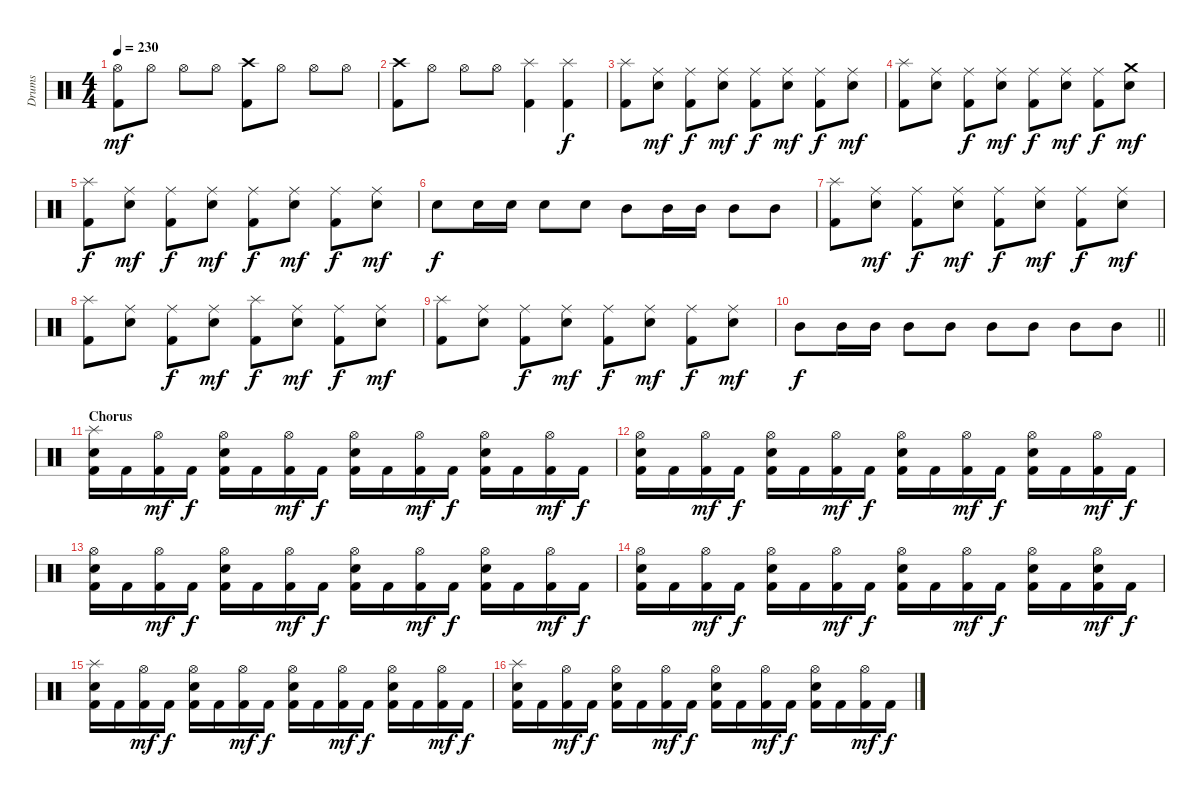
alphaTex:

\track ("Drums" "Drums") {instrument percussion}
\staff {score}
\articulation defaults
\ts (4 4)
\tempo 230
\clef neutral
\ks c
("Hi-Hat (open)" "Kick (hit) 2").8{dy mf} "Hi-Hat (open)".8 "Hi-Hat (open)".8 "Hi-Hat (open)".8 ("Crash high (hit)" "Kick (hit) 2").8 "Hi-Hat (open)".8 "Hi-Hat (open)".8 "Hi-Hat (open)".8 |
("Crash high (hit)" "Kick (hit) 2").8 "Hi-Hat (open)".8 "Hi-Hat (open)".8 "Hi-Hat (open)".8 ("Splash (hit)" "Kick (hit) 2").4 ("Splash (hit)" "Kick (hit) 2").4{dy f} |
("Splash (hit)" "Kick (hit) 2").8 ("Ride (middle)" "Snare (hit) 2").8{dy mf} ("Ride (middle)" "Kick (hit) 2").8{dy f} ("Ride (middle)" "Snare (hit) 2").8{dy mf} ("Ride (middle)" "Kick (hit) 2").8{dy f} ("Ride (middle)" "Snare (hit) 2").8{dy mf} ("Ride (middle)" "Kick (hit) 2").8{dy f} ("Ride (middle)" "Snare (hit) 2").8{dy mf} |
("Splash (hit)" "Kick (hit) 2").8 ("Ride (middle)" "Snare (hit) 2").8 ("Ride (middle)" "Kick (hit) 2").8{dy f} ("Ride (middle)" "Snare (hit) 2").8{dy mf} ("Ride (middle)" "Kick (hit) 2").8{dy f} ("Ride (middle)" "Snare (hit) 2").8{dy mf} ("Ride (middle)" "Kick (hit) 2").8{dy f} ("Crash medium (hit)" "Snare (hit) 2").8{dy mf} |
("Splash (hit)" "Kick (hit) 2").8{dy f} ("Ride (middle)" "Snare (hit) 2").8{dy mf} ("Ride (middle)" "Kick (hit) 2").8{dy f} ("Ride (middle)" "Snare (hit) 2").8{dy mf} ("Ride (middle)" "Kick (hit) 2").8{dy f} ("Ride (middle)" "Snare (hit) 2").8{dy mf} ("Ride (middle)" "Kick (hit) 2").8{dy f} ("Ride (middle)" "Snare (hit) 2").8{dy mf} |
"Snare (hit) 2".8{dy f} "Snare (hit) 2".16 "Snare (hit) 2".16 "Snare (hit) 2".8 "Snare (hit) 2".8 "Mid Tom (hit)".8 "Mid Tom (hit)".16 "Mid Tom (hit)".16 "Mid Tom (hit)".8 "Mid Tom (hit)".8 |
("Splash (hit)" "Kick (hit) 2").8 ("Ride (middle)" "Snare (hit) 2").8{dy mf} ("Ride (middle)" "Kick (hit) 2").8{dy f} ("Ride (middle)" "Snare (hit) 2").8{dy mf} ("Ride (middle)" "Kick (hit) 2").8{dy f} ("Ride (middle)" "Snare (hit) 2").8{dy mf} ("Ride (middle)" "Kick (hit) 2").8{dy f} ("Ride (middle)" "Snare (hit) 2").8{dy mf} |
("Splash (hit)" "Kick (hit) 2").8 ("Ride (middle)" "Snare (hit) 2").8 ("Ride (middle)" "Kick (hit) 2").8{dy f} ("Ride (middle)" "Snare (hit) 2").8{dy mf} ("Splash (hit)" "Kick (hit) 2").8{dy f} ("Ride (middle)" "Snare (hit) 2").8{dy mf} ("Ride (middle)" "Kick (hit) 2").8{dy f} ("Ride (middle)" "Snare (hit) 2").8{dy mf} |
("Splash (hit)" "Kick (hit) 2").8 ("Ride (middle)" "Snare (hit) 2").8 ("Ride (middle)" "Kick (hit) 2").8{dy f} ("Ride (middle)" "Snare (hit) 2").8{dy mf} ("Ride (middle)" "Kick (hit) 2").8{dy f} ("Ride (middle)" "Snare (hit) 2").8{dy mf} ("Ride (middle)" "Kick (hit) 2").8{dy f} ("Ride (middle)" "Snare (hit) 2").8{dy mf} |
\barLineRight lightlight "Mid Tom (hit)".8{dy f} "Mid Tom (hit)".16 "Mid Tom (hit)".16 "Mid Tom (hit)".8 "Mid Tom (hit)".8 "Mid Tom (hit)".8 "Mid Tom (hit)".8 "Mid Tom (hit)".8 "Mid Tom (hit)".8
|
\section ("" "Chorus")
("Splash (hit)" "Snare (hit) 2" "Kick (hit) 2").16 "Kick (hit) 2".16 ("Hi-Hat (open)" "Kick (hit) 2").16{dy mf} "Kick (hit) 2".16{dy f} ("Hi-Hat (open)" "Snare (hit) 2" "Kick (hit) 2").16 "Kick (hit) 2".16 ("Hi-Hat (open)" "Kick (hit) 2").16{dy mf} "Kick (hit) 2".16{dy f} ("Hi-Hat (open)" "Snare (hit) 2" "Kick (hit) 2").16 "Kick (hit) 2".16 ("Hi-Hat (open)" "Kick (hit) 2").16{dy mf} "Kick (hit) 2".16{dy f} ("Hi-Hat (open)" "Snare (hit) 2" "Kick (hit) 2").16 "Kick (hit) 2".16 ("Hi-Hat (open)" "Kick (hit) 2").16{dy mf} "Kick (hit) 2".16{dy f} |
("Hi-Hat (open)" "Snare (hit) 2" "Kick (hit) 2").16 "Kick (hit) 2".16 ("Hi-Hat (open)" "Kick (hit) 2").16{dy mf} "Kick (hit) 2".16{dy f} ("Hi-Hat (open)" "Snare (hit) 2" "Kick (hit) 2").16 "Kick (hit) 2".16 ("Hi-Hat (open)" "Kick (hit) 2").16{dy mf} "Kick (hit) 2".16{dy f} ("Hi-Hat (open)" "Snare (hit) 2" "Kick (hit) 2").16 "Kick (hit) 2".16 ("Hi-Hat (open)" "Kick (hit) 2").16{dy mf} "Kick (hit) 2".16{dy f} ("Hi-Hat (open)" "Snare (hit) 2" "Kick (hit) 2").16 "Kick (hit) 2".16 ("Hi-Hat (open)" "Kick (hit) 2").16{dy mf} "Kick (hit) 2".16{dy f} |
("Hi-Hat (open)" "Snare (hit) 2" "Kick (hit) 2").16 "Kick (hit) 2".16 ("Hi-Hat (open)" "Kick (hit) 2").16{dy mf} "Kick (hit) 2".16{dy f} ("Hi-Hat (open)" "Snare (hit) 2" "Kick (hit) 2").16 "Kick (hit) 2".16 ("Hi-Hat (open)" "Kick (hit) 2").16{dy mf} "Kick (hit) 2".16{dy f} ("Hi-Hat (open)" "Snare (hit) 2" "Kick (hit) 2").16 "Kick (hit) 2".16 ("Hi-Hat (open)" "Kick (hit) 2").16{dy mf} "Kick (hit) 2".16{dy f} ("Hi-Hat (open)" "Snare (hit) 2" "Kick (hit) 2").16 "Kick (hit) 2".16 ("Hi-Hat (open)" "Kick (hit) 2").16{dy mf} "Kick (hit) 2".16{dy f} |
("Hi-Hat (open)" "Snare (hit) 2" "Kick (hit) 2").16 "Kick (hit) 2".16 ("Hi-Hat (open)" "Kick (hit) 2").16{dy mf} "Kick (hit) 2".16{dy f} ("Hi-Hat (open)" "Snare (hit) 2" "Kick (hit) 2").16 "Kick (hit) 2".16 ("Hi-Hat (open)" "Kick (hit) 2").16{dy mf} "Kick (hit) 2".16{dy f} ("Hi-Hat (open)" "Snare (hit) 2" "Kick (hit) 2").16 "Kick (hit) 2".16 ("Hi-Hat (open)" "Kick (hit) 2").16{dy mf} "Kick (hit) 2".16{dy f} ("Hi-Hat (open)" "Snare (hit) 2" "Kick (hit) 2").16 "Kick (hit) 2".16 ("Hi-Hat (open)" "Snare (hit) 2" "Kick (hit) 2").16{dy mf} "Kick (hit) 2".16{dy f} |
("Splash (hit)" "Snare (hit) 2" "Kick (hit) 2").16 "Kick (hit) 2".16 ("Hi-Hat (open)" "Kick (hit) 2").16{dy mf} "Kick (hit) 2".16{dy f} ("Hi-Hat (open)" "Snare (hit) 2" "Kick (hit) 2").16 "Kick (hit) 2".16 ("Hi-Hat (open)" "Kick (hit) 2").16{dy mf} "Kick (hit) 2".16{dy f} ("Hi-Hat (open)" "Snare (hit) 2" "Kick (hit) 2").16 "Kick (hit) 2".16 ("Hi-Hat (open)" "Kick (hit) 2").16{dy mf} "Kick (hit) 2".16{dy f} ("Hi-Hat (open)" "Snare (hit) 2" "Kick (hit) 2").16 "Kick (hit) 2".16 ("Hi-Hat (open)" "Kick (hit) 2").16{dy mf} "Kick (hit) 2".16{dy f} |
("Splash (hit)" "Snare (hit) 2" "Kick (hit) 2").16 "Kick (hit) 2".16 ("Hi-Hat (open)" "Kick (hit) 2").16{dy mf} "Kick (hit) 2".16{dy f} ("Hi-Hat (open)" "Snare (hit) 2" "Kick (hit) 2").16 "Kick (hit) 2".16 ("Hi-Hat (open)" "Kick (hit) 2").16{dy mf} "Kick (hit) 2".16{dy f} ("Hi-Hat (open)" "Snare (hit) 2" "Kick (hit) 2").16 "Kick (hit) 2".16 ("Hi-Hat (open)" "Kick (hit) 2").16{dy mf} "Kick (hit) 2".16{dy f} ("Hi-Hat (open)" "Snare (hit) 2" "Kick (hit) 2").16 "Kick (hit) 2".16 ("Hi-Hat (open)" "Kick (hit) 2").16{dy mf} "Kick (hit) 2".16{dy f}
